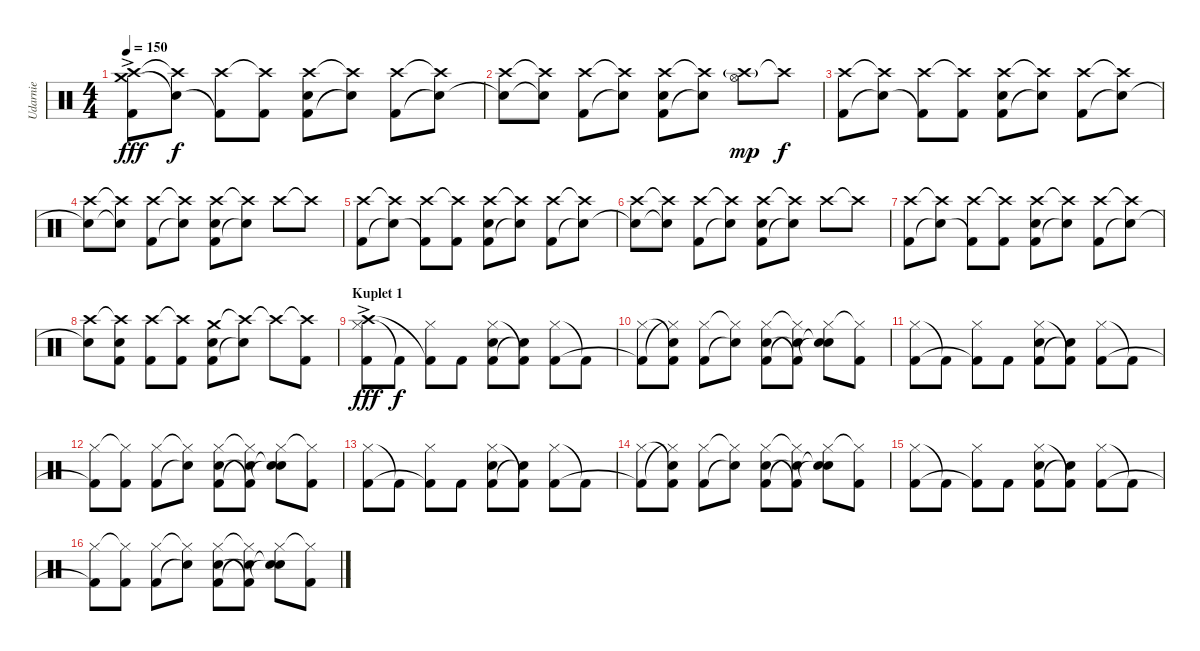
\track ("Udarnie" "Udarnie") {instrument percussion}
\staff {score}
\articulation defaults
\ts (4 4)
\tempo 150
\clef neutral
\ks c
("Crash high (hit)"{ac} "Crash medium (hit)"{ac} "Kick (hit) 2").8{dy fff} ("Crash high (hit)"{t} "Snare (hit)"{t}).8{dy f} ("Crash high (hit)" "Kick (hit) 2"{t}).8 ("Crash high (hit)"{t} "Kick (hit) 2").8 ("Crash high (hit)" "Kick (hit) 2" "Snare (hit) 2").8 ("Crash high (hit)"{t} "Snare (hit)"{t}).8 ("Crash high (hit)" "Kick (hit) 2").8 ("Crash high (hit)"{t} "Snare (hit) 2"{t}).8 |
("Crash high (hit)" "Snare (hit)"{t}).8 ("Crash high (hit)"{t} "Snare (hit)"{t}).8 ("Crash high (hit)" "Kick (hit) 2").8 ("Crash high (hit)"{t} "Snare (hit)"{t}).8 ("Crash high (hit)" "Kick (hit) 2" "Snare (hit) 2").8 ("Crash high (hit)"{t} "Snare (hit)"{t}).8 ("Crash high (hit)"{g} "Hi-Hat (open)").8{dy mp} "Crash high (hit)"{t}.8{dy f} |
("Crash high (hit)" "Kick (hit) 2").8 ("Crash high (hit)"{t} "Snare (hit)"{t}).8 ("Crash high (hit)" "Kick (hit) 2"{t}).8 ("Crash high (hit)"{t} "Kick (hit) 2").8 ("Crash high (hit)" "Kick (hit) 2" "Snare (hit) 2").8 ("Crash high (hit)"{t} "Snare (hit)"{t}).8 ("Crash high (hit)" "Kick (hit) 2").8 ("Crash high (hit)"{t} "Snare (hit) 2"{t}).8 |
("Crash high (hit)" "Snare (hit)"{t}).8 ("Crash high (hit)"{t} "Snare (hit)"{t}).8 ("Crash high (hit)" "Kick (hit) 2").8 ("Crash high (hit)"{t} "Snare (hit)"{t}).8 ("Crash high (hit)" "Kick (hit) 2" "Snare (hit) 2").8 ("Crash high (hit)"{t} "Snare (hit)"{t}).8 "Crash high (hit)".8 "Crash high (hit)"{t}.8 |
("Crash high (hit)" "Kick (hit) 2").8 ("Crash high (hit)"{t} "Snare (hit)"{t}).8 ("Crash high (hit)" "Kick (hit) 2"{t}).8 ("Crash high (hit)"{t} "Kick (hit) 2").8 ("Crash high (hit)" "Kick (hit) 2" "Snare (hit) 2").8 ("Crash high (hit)"{t} "Snare (hit)"{t}).8 ("Crash high (hit)" "Kick (hit) 2").8 ("Crash high (hit)"{t} "Snare (hit) 2"{t}).8 |
("Crash high (hit)" "Snare (hit)"{t}).8 ("Crash high (hit)"{t} "Snare (hit)"{t}).8 ("Crash high (hit)" "Kick (hit) 2").8 ("Crash high (hit)"{t} "Snare (hit)"{t}).8 ("Crash high (hit)" "Kick (hit) 2" "Snare (hit) 2").8 ("Crash high (hit)"{t} "Snare (hit)"{t}).8 "Crash high (hit)".8 "Crash high (hit)"{t}.8 |
("Crash high (hit)" "Kick (hit) 2").8 ("Crash high (hit)"{t} "Snare (hit)"{t}).8 ("Crash high (hit)" "Kick (hit) 2"{t}).8 ("Crash high (hit)"{t} "Kick (hit) 2").8 ("Crash high (hit)" "Kick (hit) 2" "Snare (hit) 2").8 ("Crash high (hit)"{t} "Snare (hit)"{t}).8 ("Crash high (hit)" "Kick (hit) 2").8 ("Crash high (hit)"{t} "Snare (hit) 2"{t}).8 |
("Crash high (hit)" "Snare (hit)"{t}).8 ("Crash high (hit)"{t} "Kick (hit) 2" "Snare (hit) 2").8 ("Crash high (hit)" "Kick (hit) 2").8 ("Crash high (hit)"{t} "Kick (hit) 2").8 ("Crash medium (hit)" "Kick (hit) 2" "Snare (hit) 2").8 ("Crash high (hit)"{t} "Snare (hit)"{t}).8 "Crash high (hit)"{t}.8 ("Crash high (hit)"{t} "Kick (hit) 2").8 |
\section ("" "Kuplet 1")
("Hi-Hat (closed)" "Crash high (hit)"{ac} "Kick (hit) 2").8{dy fff} "Kick (hit) 2"{t}.8{dy f} ("Hi-Hat (closed)" "Kick (hit) 2"{t}).8 "Kick (hit) 2".8 ("Hi-Hat (closed)" "Kick (hit) 2" "Snare (hit) 2").8 ("Kick (hit) 2"{t} "Snare (hit) 2"{t}).8 ("Hi-Hat (closed)" "Kick (hit) 2").8 "Kick (hit) 2"{t}.8 |
("Hi-Hat (closed)" "Kick (hit) 2"{t}).8 ("Snare (hit)"{t} "Hi-Hat (closed)"{t} "Kick (hit) 2").8 ("Hi-Hat (closed)" "Kick (hit) 2").8 ("Hi-Hat (closed)"{t} "Snare (hit)"{t}).8 ("Hi-Hat (closed)" "Snare (hit) 2" "Kick (hit) 2").8 ("Hi-Hat (closed)"{t} "Kick (hit) 2"{t} "Snare (hit) 2"{t}).8 ("Hi-Hat (closed)" "Snare (hit)"{t} "Snare (hit)"{t}).8 ("Hi-Hat (closed)"{t} "Kick (hit) 2").8 |
("Hi-Hat (closed)" "Kick (hit) 2").8 "Kick (hit) 2"{t}.8 ("Hi-Hat (closed)" "Kick (hit) 2"{t}).8 "Kick (hit) 2".8 ("Hi-Hat (closed)" "Kick (hit) 2" "Snare (hit) 2").8 ("Kick (hit) 2"{t} "Snare (hit) 2"{t}).8 ("Hi-Hat (closed)" "Kick (hit) 2").8 "Kick (hit) 2"{t}.8 |
("Hi-Hat (closed)" "Kick (hit) 2"{t}).8 ("Hi-Hat (closed)"{t} "Kick (hit) 2").8 ("Hi-Hat (closed)" "Kick (hit) 2").8 ("Hi-Hat (closed)"{t} "Snare (hit)"{t}).8 ("Hi-Hat (closed)" "Snare (hit) 2" "Kick (hit) 2").8 ("Hi-Hat (closed)"{t} "Kick (hit) 2"{t} "Snare (hit) 2"{t}).8 ("Hi-Hat (closed)" "Snare (hit)"{t} "Snare (hit)"{t}).8 ("Hi-Hat (closed)"{t} "Kick (hit) 2").8 |
("Hi-Hat (closed)" "Kick (hit) 2").8 "Kick (hit) 2"{t}.8 ("Hi-Hat (closed)" "Kick (hit) 2"{t}).8 "Kick (hit) 2".8 ("Hi-Hat (closed)" "Kick (hit) 2" "Snare (hit) 2").8 ("Kick (hit) 2"{t} "Snare (hit) 2"{t}).8 ("Hi-Hat (closed)" "Kick (hit) 2").8 "Kick (hit) 2"{t}.8 |
("Hi-Hat (closed)" "Kick (hit) 2"{t}).8 ("Snare (hit)"{t} "Hi-Hat (closed)"{t} "Kick (hit) 2").8 ("Hi-Hat (closed)" "Kick (hit) 2").8 ("Hi-Hat (closed)"{t} "Snare (hit)"{t}).8 ("Hi-Hat (closed)" "Snare (hit) 2" "Kick (hit) 2").8 ("Hi-Hat (closed)"{t} "Kick (hit) 2"{t} "Snare (hit) 2"{t}).8 ("Hi-Hat (closed)" "Snare (hit)"{t} "Snare (hit)"{t}).8 ("Hi-Hat (closed)"{t} "Kick (hit) 2").8 |
("Hi-Hat (closed)" "Kick (hit) 2").8 "Kick (hit) 2"{t}.8 ("Hi-Hat (closed)" "Kick (hit) 2"{t}).8 "Kick (hit) 2".8 ("Hi-Hat (closed)" "Kick (hit) 2" "Snare (hit) 2").8 ("Kick (hit) 2"{t} "Snare (hit) 2"{t}).8 ("Hi-Hat (closed)" "Kick (hit) 2").8 "Kick (hit) 2"{t}.8 |
("Hi-Hat (closed)" "Kick (hit) 2"{t}).8 ("Hi-Hat (closed)"{t} "Kick (hit) 2").8 ("Hi-Hat (closed)" "Kick (hit) 2").8 ("Hi-Hat (closed)"{t} "Snare (hit)"{t}).8 ("Hi-Hat (closed)" "Snare (hit) 2" "Kick (hit) 2").8 ("Hi-Hat (closed)"{t} "Kick (hit) 2"{t} "Snare (hit) 2"{t}).8 ("Hi-Hat (closed)" "Snare (hit)"{t} "Snare (hit)"{t}).8 ("Hi-Hat (closed)"{t} "Kick (hit) 2").8
